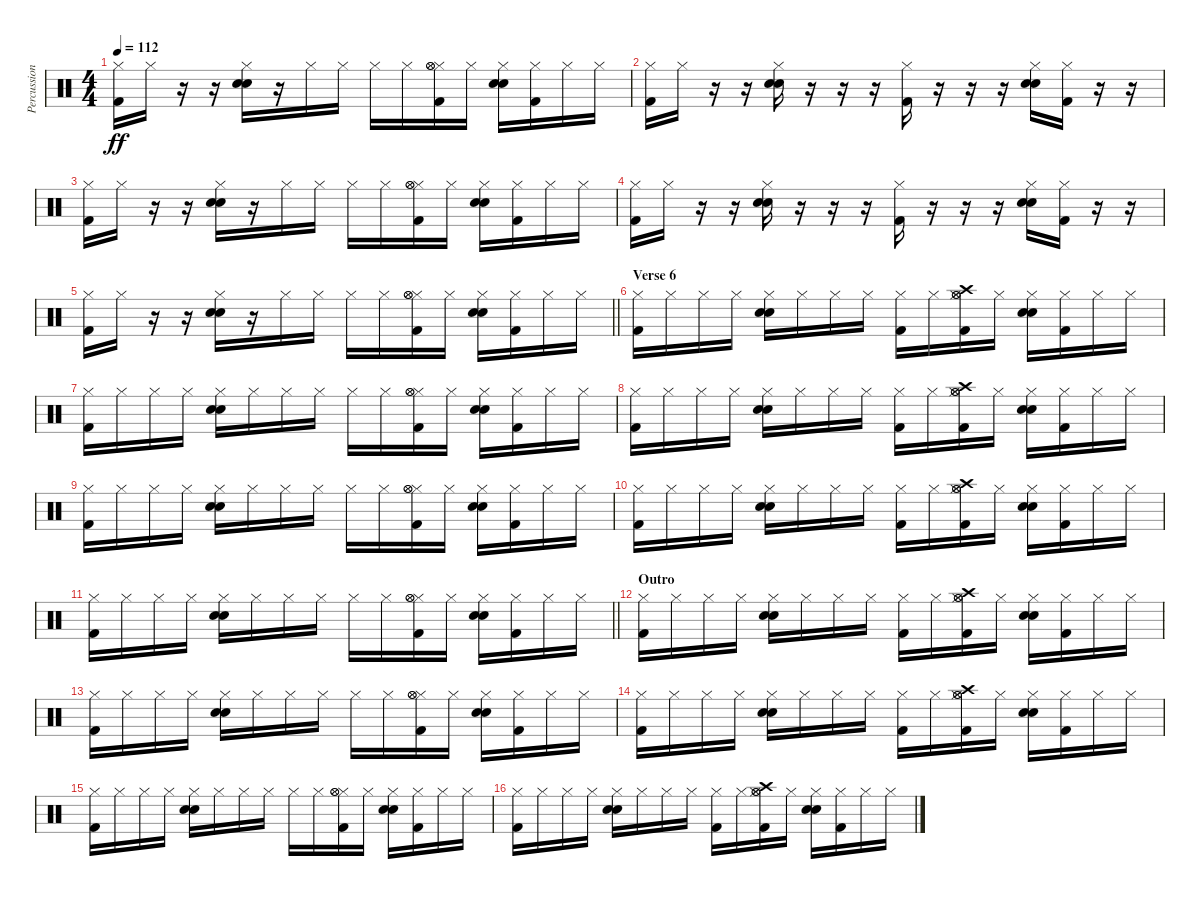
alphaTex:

\track ("Percussion" "Percussion") {instrument percussion}
\staff {score}
\articulation defaults
\ts (4 4)
\tempo 112
\clef neutral
\ks c
("Kick (hit) 2" "Hi-Hat (closed)").16{dy ff} "Hi-Hat (closed)".16 r.16 r.16 ("Snare (hit) 2" "Hi-Hat (closed)" "Hand Clap (hit)").16 r.16 "Hi-Hat (closed)".16 "Hi-Hat (closed)".16 "Hi-Hat (closed)".16 "Hi-Hat (closed)".16 ("Kick (hit) 2" "Hi-Hat (closed)" "Hi-Hat (open)" "Hi-Hat (open)").16 "Hi-Hat (closed)".16 ("Snare (hit) 2" "Hi-Hat (closed)" "Hand Clap (hit)").16 ("Kick (hit) 2" "Hi-Hat (closed)").16 "Hi-Hat (closed)".16 "Hi-Hat (closed)".16 |
("Kick (hit) 2" "Hi-Hat (closed)").16 "Hi-Hat (closed)".16 r.16 r.16 ("Snare (hit) 2" "Hi-Hat (closed)" "Hand Clap (hit)").16 r.16 r.16 r.16 ("Kick (hit) 2" "Hi-Hat (closed)").16 r.16 r.16 r.16 ("Snare (hit) 2" "Hi-Hat (closed)" "Hand Clap (hit)").16 ("Kick (hit) 2" "Hi-Hat (closed)").16 r.16 r.16 |
("Kick (hit) 2" "Hi-Hat (closed)").16 "Hi-Hat (closed)".16 r.16 r.16 ("Snare (hit) 2" "Hi-Hat (closed)" "Hand Clap (hit)").16 r.16 "Hi-Hat (closed)".16 "Hi-Hat (closed)".16 "Hi-Hat (closed)".16 "Hi-Hat (closed)".16 ("Kick (hit) 2" "Hi-Hat (closed)" "Hi-Hat (open)" "Hi-Hat (open)").16 "Hi-Hat (closed)".16 ("Snare (hit) 2" "Hi-Hat (closed)" "Hand Clap (hit)").16 ("Kick (hit) 2" "Hi-Hat (closed)").16 "Hi-Hat (closed)".16 "Hi-Hat (closed)".16 |
("Kick (hit) 2" "Hi-Hat (closed)").16 "Hi-Hat (closed)".16 r.16 r.16 ("Snare (hit) 2" "Hi-Hat (closed)" "Hand Clap (hit)").16 r.16 r.16 r.16 ("Kick (hit) 2" "Hi-Hat (closed)").16 r.16 r.16 r.16 ("Snare (hit) 2" "Hi-Hat (closed)" "Hand Clap (hit)").16 ("Kick (hit) 2" "Hi-Hat (closed)").16 r.16 r.16 |
\barLineRight lightlight
("Kick (hit) 2" "Hi-Hat (closed)").16 "Hi-Hat (closed)".16 r.16 r.16 ("Snare (hit) 2" "Hi-Hat (closed)" "Hand Clap (hit)").16 r.16 "Hi-Hat (closed)".16 "Hi-Hat (closed)".16 "Hi-Hat (closed)".16 "Hi-Hat (closed)".16 ("Kick (hit) 2" "Hi-Hat (closed)" "Hi-Hat (open)" "Hi-Hat (open)").16 "Hi-Hat (closed)".16 ("Snare (hit) 2" "Hi-Hat (closed)" "Hand Clap (hit)").16 ("Kick (hit) 2" "Hi-Hat (closed)").16 "Hi-Hat (closed)".16 "Hi-Hat (closed)".16 |
\section ("" "Verse 6")
("Kick (hit) 2" "Hi-Hat (closed)").16 "Hi-Hat (closed)".16 "Hi-Hat (closed)".16 "Hi-Hat (closed)".16 ("Snare (hit) 2" "Hi-Hat (closed)" "Hand Clap (hit)").16 "Hi-Hat (closed)".16 "Hi-Hat (closed)".16 "Hi-Hat (closed)".16 ("Kick (hit) 2" "Hi-Hat (closed)").16 "Hi-Hat (closed)".16 ("Kick (hit) 2" "Crash high (hit)" "Hi-Hat (closed)" "Hi-Hat (open)" "Hi-Hat (open)").16 "Hi-Hat (closed)".16 ("Snare (hit) 2" "Hi-Hat (closed)" "Hand Clap (hit)").16 ("Kick (hit) 2" "Hi-Hat (closed)").16 "Hi-Hat (closed)".16 "Hi-Hat (closed)".16 |
("Kick (hit) 2" "Hi-Hat (closed)").16 "Hi-Hat (closed)".16 "Hi-Hat (closed)".16 "Hi-Hat (closed)".16 ("Snare (hit) 2" "Hi-Hat (closed)" "Hand Clap (hit)").16 "Hi-Hat (closed)".16 "Hi-Hat (closed)".16 "Hi-Hat (closed)".16 "Hi-Hat (closed)".16 "Hi-Hat (closed)".16 ("Kick (hit) 2" "Hi-Hat (closed)" "Hi-Hat (open)" "Hi-Hat (open)").16 "Hi-Hat (closed)".16 ("Snare (hit) 2" "Hi-Hat (closed)" "Hand Clap (hit)").16 ("Kick (hit) 2" "Hi-Hat (closed)").16 "Hi-Hat (closed)".16 "Hi-Hat (closed)".16 |
("Kick (hit) 2" "Hi-Hat (closed)").16 "Hi-Hat (closed)".16 "Hi-Hat (closed)".16 "Hi-Hat (closed)".16 ("Snare (hit) 2" "Hi-Hat (closed)" "Hand Clap (hit)").16 "Hi-Hat (closed)".16 "Hi-Hat (closed)".16 "Hi-Hat (closed)".16 ("Kick (hit) 2" "Hi-Hat (closed)").16 "Hi-Hat (closed)".16 ("Kick (hit) 2" "Crash high (hit)" "Hi-Hat (closed)" "Hi-Hat (open)" "Hi-Hat (open)").16 "Hi-Hat (closed)".16 ("Snare (hit) 2" "Hi-Hat (closed)" "Hand Clap (hit)").16 ("Kick (hit) 2" "Hi-Hat (closed)").16 "Hi-Hat (closed)".16 "Hi-Hat (closed)".16 |
("Kick (hit) 2" "Hi-Hat (closed)").16 "Hi-Hat (closed)".16 "Hi-Hat (closed)".16 "Hi-Hat (closed)".16 ("Snare (hit) 2" "Hi-Hat (closed)" "Hand Clap (hit)").16 "Hi-Hat (closed)".16 "Hi-Hat (closed)".16 "Hi-Hat (closed)".16 "Hi-Hat (closed)".16 "Hi-Hat (closed)".16 ("Kick (hit) 2" "Hi-Hat (closed)" "Hi-Hat (open)" "Hi-Hat (open)").16 "Hi-Hat (closed)".16 ("Snare (hit) 2" "Hi-Hat (closed)" "Hand Clap (hit)").16 ("Kick (hit) 2" "Hi-Hat (closed)").16 "Hi-Hat (closed)".16 "Hi-Hat (closed)".16 |
("Kick (hit) 2" "Hi-Hat (closed)").16 "Hi-Hat (closed)".16 "Hi-Hat (closed)".16 "Hi-Hat (closed)".16 ("Snare (hit) 2" "Hi-Hat (closed)" "Hand Clap (hit)").16 "Hi-Hat (closed)".16 "Hi-Hat (closed)".16 "Hi-Hat (closed)".16 ("Kick (hit) 2" "Hi-Hat (closed)").16 "Hi-Hat (closed)".16 ("Kick (hit) 2" "Crash high (hit)" "Hi-Hat (closed)" "Hi-Hat (open)" "Hi-Hat (open)").16 "Hi-Hat (closed)".16 ("Snare (hit) 2" "Hi-Hat (closed)" "Hand Clap (hit)").16 ("Kick (hit) 2" "Hi-Hat (closed)").16 "Hi-Hat (closed)".16 "Hi-Hat (closed)".16 |
\barLineRight lightlight
("Kick (hit) 2" "Hi-Hat (closed)").16 "Hi-Hat (closed)".16 "Hi-Hat (closed)".16 "Hi-Hat (closed)".16 ("Snare (hit) 2" "Hi-Hat (closed)" "Hand Clap (hit)").16 "Hi-Hat (closed)".16 "Hi-Hat (closed)".16 "Hi-Hat (closed)".16 "Hi-Hat (closed)".16 "Hi-Hat (closed)".16 ("Kick (hit) 2" "Hi-Hat (closed)" "Hi-Hat (open)" "Hi-Hat (open)").16 "Hi-Hat (closed)".16 ("Snare (hit) 2" "Hi-Hat (closed)" "Hand Clap (hit)").16 ("Kick (hit) 2" "Hi-Hat (closed)").16 "Hi-Hat (closed)".16 "Hi-Hat (closed)".16 |
\section ("" "Outro")
("Kick (hit) 2" "Hi-Hat (closed)").16 "Hi-Hat (closed)".16 "Hi-Hat (closed)".16 "Hi-Hat (closed)".16 ("Snare (hit) 2" "Hi-Hat (closed)" "Hand Clap (hit)").16 "Hi-Hat (closed)".16 "Hi-Hat (closed)".16 "Hi-Hat (closed)".16 ("Kick (hit) 2" "Hi-Hat (closed)").16 "Hi-Hat (closed)".16 ("Kick (hit) 2" "Crash high (hit)" "Hi-Hat (closed)" "Hi-Hat (open)" "Hi-Hat (open)").16 "Hi-Hat (closed)".16 ("Snare (hit) 2" "Hi-Hat (closed)" "Hand Clap (hit)").16 ("Kick (hit) 2" "Hi-Hat (closed)").16 "Hi-Hat (closed)".16 "Hi-Hat (closed)".16 |
("Kick (hit) 2" "Hi-Hat (closed)").16 "Hi-Hat (closed)".16 "Hi-Hat (closed)".16 "Hi-Hat (closed)".16 ("Snare (hit) 2" "Hi-Hat (closed)" "Hand Clap (hit)").16 "Hi-Hat (closed)".16 "Hi-Hat (closed)".16 "Hi-Hat (closed)".16 "Hi-Hat (closed)".16 "Hi-Hat (closed)".16 ("Kick (hit) 2" "Hi-Hat (closed)" "Hi-Hat (open)" "Hi-Hat (open)").16 "Hi-Hat (closed)".16 ("Snare (hit) 2" "Hi-Hat (closed)" "Hand Clap (hit)").16 ("Kick (hit) 2" "Hi-Hat (closed)").16 "Hi-Hat (closed)".16 "Hi-Hat (closed)".16 |
("Kick (hit) 2" "Hi-Hat (closed)").16 "Hi-Hat (closed)".16 "Hi-Hat (closed)".16 "Hi-Hat (closed)".16 ("Snare (hit) 2" "Hi-Hat (closed)" "Hand Clap (hit)").16 "Hi-Hat (closed)".16 "Hi-Hat (closed)".16 "Hi-Hat (closed)".16 ("Kick (hit) 2" "Hi-Hat (closed)").16 "Hi-Hat (closed)".16 ("Kick (hit) 2" "Crash high (hit)" "Hi-Hat (closed)" "Hi-Hat (open)" "Hi-Hat (open)").16 "Hi-Hat (closed)".16 ("Snare (hit) 2" "Hi-Hat (closed)" "Hand Clap (hit)").16 ("Kick (hit) 2" "Hi-Hat (closed)").16 "Hi-Hat (closed)".16 "Hi-Hat (closed)".16 |
("Kick (hit) 2" "Hi-Hat (closed)").16 "Hi-Hat (closed)".16 "Hi-Hat (closed)".16 "Hi-Hat (closed)".16 ("Snare (hit) 2" "Hi-Hat (closed)" "Hand Clap (hit)").16 "Hi-Hat (closed)".16 "Hi-Hat (closed)".16 "Hi-Hat (closed)".16 "Hi-Hat (closed)".16 "Hi-Hat (closed)".16 ("Kick (hit) 2" "Hi-Hat (closed)" "Hi-Hat (open)" "Hi-Hat (open)").16 "Hi-Hat (closed)".16 ("Snare (hit) 2" "Hi-Hat (closed)" "Hand Clap (hit)").16 ("Kick (hit) 2" "Hi-Hat (closed)").16 "Hi-Hat (closed)".16 "Hi-Hat (closed)".16 |
("Kick (hit) 2" "Hi-Hat (closed)").16 "Hi-Hat (closed)".16 "Hi-Hat (closed)".16 "Hi-Hat (closed)".16 ("Snare (hit) 2" "Hi-Hat (closed)" "Hand Clap (hit)").16 "Hi-Hat (closed)".16 "Hi-Hat (closed)".16 "Hi-Hat (closed)".16 ("Kick (hit) 2" "Hi-Hat (closed)").16 "Hi-Hat (closed)".16 ("Kick (hit) 2" "Crash high (hit)" "Hi-Hat (closed)" "Hi-Hat (open)" "Hi-Hat (open)").16 "Hi-Hat (closed)".16 ("Snare (hit) 2" "Hi-Hat (closed)" "Hand Clap (hit)").16 ("Kick (hit) 2" "Hi-Hat (closed)").16 "Hi-Hat (closed)".16 "Hi-Hat (closed)".16
